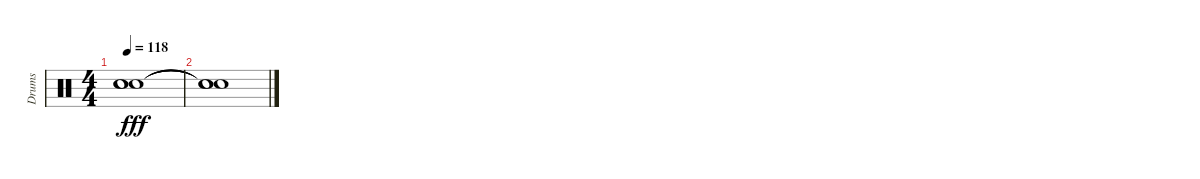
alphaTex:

\track ("Drums" "Drums") {instrument percussion}
\staff {score}
\articulation defaults
\ts (4 4)
\tempo 118
\clef neutral
\ks c
("Snare (hit)"{t} "Snare (hit)"{t} "Snare (hit)"{t}).1{dy fff} |
("Snare (hit)"{t} "Snare (hit)"{t} "Snare (hit)"{t}).1
